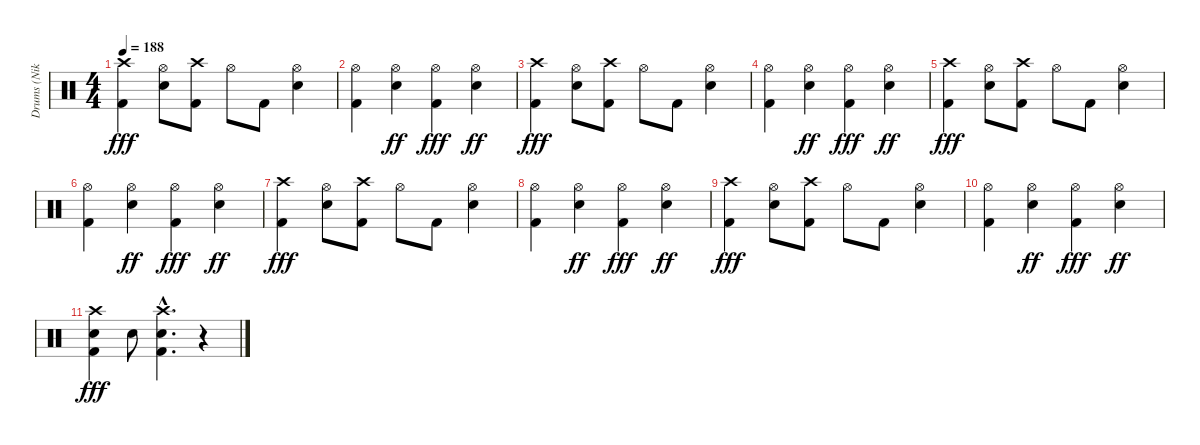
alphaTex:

\track ("Drums (Niko)" "Drums (Nik") {instrument percussion}
\staff {score}
\articulation defaults
\ts (4 4)
\tempo 188
\clef neutral
\ks c
("Crash high (hit)" "Kick (hit) 2").4{dy fff} ("Hi-Hat (open)" "Electric Snare (hit)").8 ("Crash high (hit)" "Kick (hit) 2").8 "Hi-Hat (open)".8 "Kick (hit) 2".8 ("Hi-Hat (open)" "Electric Snare (hit)").4 |
("Hi-Hat (open)" "Kick (hit) 2").4 ("Hi-Hat (open)" "Electric Snare (hit)").4{dy ff} ("Hi-Hat (open)" "Kick (hit) 2").4{dy fff} ("Hi-Hat (open)" "Electric Snare (hit)").4{dy ff} |
("Crash high (hit)" "Kick (hit) 2").4{dy fff} ("Hi-Hat (open)" "Electric Snare (hit)").8 ("Crash high (hit)" "Kick (hit) 2").8 "Hi-Hat (open)".8 "Kick (hit) 2".8 ("Hi-Hat (open)" "Electric Snare (hit)").4 |
("Hi-Hat (open)" "Kick (hit) 2").4 ("Hi-Hat (open)" "Electric Snare (hit)").4{dy ff} ("Hi-Hat (open)" "Kick (hit) 2").4{dy fff} ("Hi-Hat (open)" "Electric Snare (hit)").4{dy ff} |
("Crash high (hit)" "Kick (hit) 2").4{dy fff} ("Hi-Hat (open)" "Electric Snare (hit)").8 ("Crash high (hit)" "Kick (hit) 2").8 "Hi-Hat (open)".8 "Kick (hit) 2".8 ("Hi-Hat (open)" "Electric Snare (hit)").4 |
("Hi-Hat (open)" "Kick (hit) 2").4 ("Hi-Hat (open)" "Electric Snare (hit)").4{dy ff} ("Hi-Hat (open)" "Kick (hit) 2").4{dy fff} ("Hi-Hat (open)" "Electric Snare (hit)").4{dy ff} |
("Crash high (hit)" "Kick (hit) 2").4{dy fff} ("Hi-Hat (open)" "Electric Snare (hit)").8 ("Crash high (hit)" "Kick (hit) 2").8 "Hi-Hat (open)".8 "Kick (hit) 2".8 ("Hi-Hat (open)" "Electric Snare (hit)").4 |
("Hi-Hat (open)" "Kick (hit) 2").4 ("Hi-Hat (open)" "Electric Snare (hit)").4{dy ff} ("Hi-Hat (open)" "Kick (hit) 2").4{dy fff} ("Hi-Hat (open)" "Electric Snare (hit)").4{dy ff} |
("Crash high (hit)" "Kick (hit) 2").4{dy fff} ("Hi-Hat (open)" "Electric Snare (hit)").8 ("Crash high (hit)" "Kick (hit) 2").8 "Hi-Hat (open)".8 "Kick (hit) 2".8 ("Hi-Hat (open)" "Electric Snare (hit)").4 |
("Hi-Hat (open)" "Kick (hit) 2").4 ("Hi-Hat (open)" "Electric Snare (hit)").4{dy ff} ("Hi-Hat (open)" "Kick (hit) 2").4{dy fff} ("Hi-Hat (open)" "Electric Snare (hit)").4{dy ff} |
("Crash high (hit)" "Electric Snare (hit)" "Kick (hit) 2").4{dy fff} "Electric Snare (hit)".8 ("Crash high (hit)"{hac} "Electric Snare (hit)"{hac} "Kick (hit) 2"{hac}).4{d} r.4
